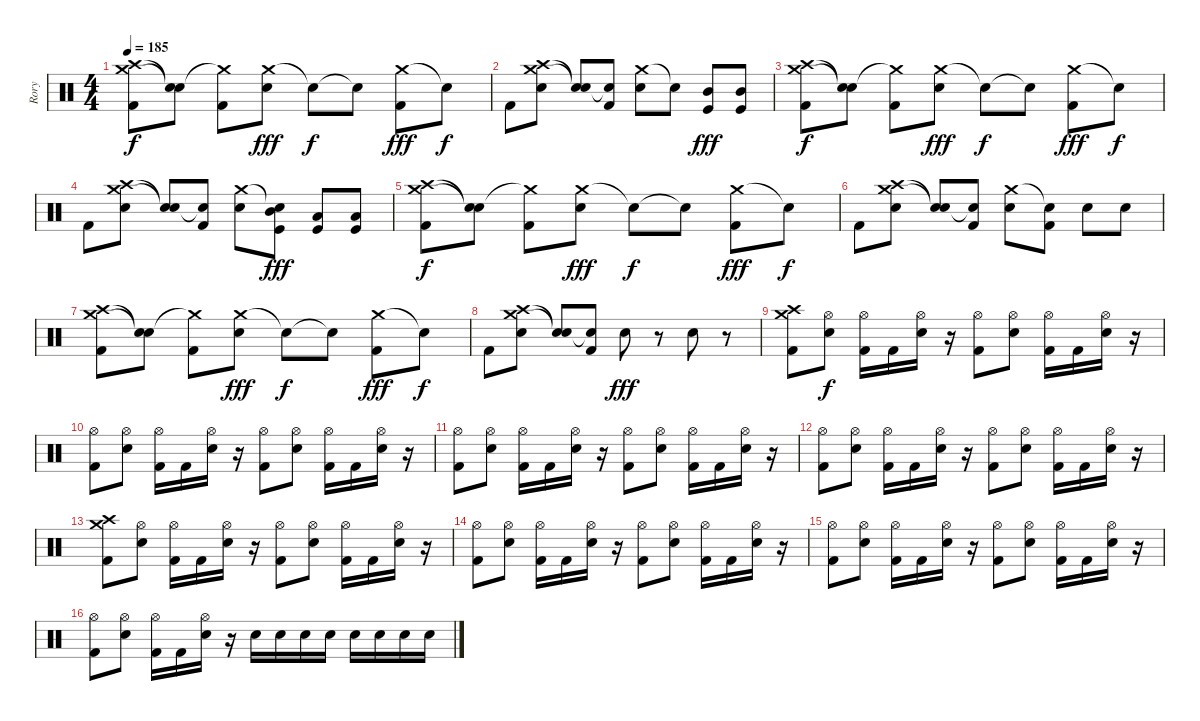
\track ("Rory" "Rory") {instrument percussion}
\staff {score}
\articulation defaults
\ts (4 4)
\tempo 185
\clef neutral
\ks c
("Crash medium (hit)" "Crash high (hit)" "Kick (hit) 2").8{dy f} ("Snare (hit)"{t} "Snare (hit)"{t}).8 ("Crash medium (hit)"{t} "Kick (hit) 2").8 ("Crash medium (hit)" "Electric Snare (hit)").8{dy fff} "Snare (hit)"{t}.8{dy f} "Snare (hit)"{t}.8 ("Crash medium (hit)" "Kick (hit) 2").8{dy fff} "Snare (hit)"{t}.8{dy f} |
"Kick (hit) 2".8 ("Crash medium (hit)" "Crash high (hit)" "Electric Snare (hit)").8 ("Snare (hit)"{t} "Snare (hit)"{t}).8 ("Snare (hit)"{t} "Kick (hit) 2").8 ("Crash medium (hit)" "Electric Snare (hit)").8 "Snare (hit)"{t}.8 ("Mid Tom (hit)" "Kick (hit)").8{dy fff} ("Mid Tom (hit)" "Kick (hit)").8 |
("Crash medium (hit)" "Crash high (hit)" "Kick (hit) 2").8{dy f} ("Snare (hit)"{t} "Snare (hit)"{t}).8 ("Crash medium (hit)"{t} "Kick (hit) 2").8 ("Crash medium (hit)" "Electric Snare (hit)").8{dy fff} "Snare (hit)"{t}.8{dy f} "Snare (hit)"{t}.8 ("Crash medium (hit)" "Kick (hit) 2").8{dy fff} "Snare (hit)"{t}.8{dy f} |
"Kick (hit) 2".8 ("Crash medium (hit)" "Crash high (hit)" "Electric Snare (hit)").8 ("Snare (hit)"{t} "Snare (hit)"{t}).8 ("Snare (hit)"{t} "Kick (hit) 2").8 ("Crash medium (hit)" "Electric Snare (hit)").8 ("Snare (hit)"{t} "Mid Tom (hit)" "Kick (hit)").8{dy fff} ("Low Tom (hit)" "Kick (hit)").8 ("Low Tom (hit)" "Kick (hit)").8 |
("Crash medium (hit)" "Crash high (hit)" "Kick (hit) 2").8{dy f} ("Snare (hit)"{t} "Snare (hit)"{t}).8 ("Crash medium (hit)"{t} "Kick (hit) 2").8 ("Crash medium (hit)" "Electric Snare (hit)").8{dy fff} "Snare (hit)"{t}.8{dy f} "Snare (hit)"{t}.8 ("Crash medium (hit)" "Kick (hit) 2").8{dy fff} "Snare (hit)"{t}.8{dy f} |
"Kick (hit) 2".8 ("Crash medium (hit)" "Crash high (hit)" "Electric Snare (hit)").8 ("Snare (hit)"{t} "Snare (hit)"{t}).8 ("Snare (hit)"{t} "Kick (hit) 2").8 ("Crash medium (hit)" "Electric Snare (hit)").8 ("Snare (hit)"{t} "Kick (hit) 2").8 "Electric Snare (hit)".8 "Electric Snare (hit)".8 |
("Crash medium (hit)" "Crash high (hit)" "Kick (hit) 2").8 ("Snare (hit)"{t} "Snare (hit)"{t}).8 ("Crash medium (hit)"{t} "Kick (hit) 2").8 ("Crash medium (hit)" "Electric Snare (hit)").8{dy fff} "Snare (hit)"{t}.8{dy f} "Snare (hit)"{t}.8 ("Crash medium (hit)" "Kick (hit) 2").8{dy fff} "Snare (hit)"{t}.8{dy f} |
"Kick (hit) 2".8 ("Crash medium (hit)" "Crash high (hit)" "Electric Snare (hit)").8 ("Snare (hit)"{t} "Snare (hit)"{t}).8 ("Snare (hit)"{t} "Kick (hit) 2").8 "Electric Snare (hit)".8{dy fff} r.8 "Electric Snare (hit)".8 r.8 |
("Crash medium (hit)" "Crash high (hit)" "Kick (hit) 2").8 ("Hi-Hat (open)" "Electric Snare (hit)").8{dy f} ("Hi-Hat (open)" "Kick (hit) 2").16 "Kick (hit) 2".16 ("Hi-Hat (open)" "Electric Snare (hit)").16 r.16 ("Hi-Hat (open)" "Kick (hit) 2").8 ("Hi-Hat (open)" "Electric Snare (hit)").8 ("Hi-Hat (open)" "Kick (hit) 2").16 "Kick (hit) 2".16 ("Hi-Hat (open)" "Electric Snare (hit)").16 r.16 |
("Hi-Hat (open)" "Kick (hit) 2").8 ("Hi-Hat (open)" "Electric Snare (hit)").8 ("Hi-Hat (open)" "Kick (hit) 2").16 "Kick (hit) 2".16 ("Hi-Hat (open)" "Electric Snare (hit)").16 r.16 ("Hi-Hat (open)" "Kick (hit) 2").8 ("Hi-Hat (open)" "Electric Snare (hit)").8 ("Hi-Hat (open)" "Kick (hit) 2").16 "Kick (hit) 2".16 ("Hi-Hat (open)" "Electric Snare (hit)").16 r.16 |
("Hi-Hat (open)" "Kick (hit) 2").8 ("Hi-Hat (open)" "Electric Snare (hit)").8 ("Hi-Hat (open)" "Kick (hit) 2").16 "Kick (hit) 2".16 ("Hi-Hat (open)" "Electric Snare (hit)").16 r.16 ("Hi-Hat (open)" "Kick (hit) 2").8 ("Hi-Hat (open)" "Electric Snare (hit)").8 ("Hi-Hat (open)" "Kick (hit) 2").16 "Kick (hit) 2".16 ("Hi-Hat (open)" "Electric Snare (hit)").16 r.16 |
("Hi-Hat (open)" "Kick (hit) 2").8 ("Hi-Hat (open)" "Electric Snare (hit)").8 ("Hi-Hat (open)" "Kick (hit) 2").16 "Kick (hit) 2".16 ("Hi-Hat (open)" "Electric Snare (hit)").16 r.16 ("Hi-Hat (open)" "Kick (hit) 2").8 ("Hi-Hat (open)" "Electric Snare (hit)").8 ("Hi-Hat (open)" "Kick (hit) 2").16 "Kick (hit) 2".16 ("Hi-Hat (open)" "Electric Snare (hit)").16 r.16 |
("Crash medium (hit)" "Crash high (hit)" "Kick (hit) 2").8 ("Hi-Hat (open)" "Electric Snare (hit)").8 ("Hi-Hat (open)" "Kick (hit) 2").16 "Kick (hit) 2".16 ("Hi-Hat (open)" "Electric Snare (hit)").16 r.16 ("Hi-Hat (open)" "Kick (hit) 2").8 ("Hi-Hat (open)" "Electric Snare (hit)").8 ("Hi-Hat (open)" "Kick (hit) 2").16 "Kick (hit) 2".16 ("Hi-Hat (open)" "Electric Snare (hit)").16 r.16 |
("Hi-Hat (open)" "Kick (hit) 2").8 ("Hi-Hat (open)" "Electric Snare (hit)").8 ("Hi-Hat (open)" "Kick (hit) 2").16 "Kick (hit) 2".16 ("Hi-Hat (open)" "Electric Snare (hit)").16 r.16 ("Hi-Hat (open)" "Kick (hit) 2").8 ("Hi-Hat (open)" "Electric Snare (hit)").8 ("Hi-Hat (open)" "Kick (hit) 2").16 "Kick (hit) 2".16 ("Hi-Hat (open)" "Electric Snare (hit)").16 r.16 |
("Hi-Hat (open)" "Kick (hit) 2").8 ("Hi-Hat (open)" "Electric Snare (hit)").8 ("Hi-Hat (open)" "Kick (hit) 2").16 "Kick (hit) 2".16 ("Hi-Hat (open)" "Electric Snare (hit)").16 r.16 ("Hi-Hat (open)" "Kick (hit) 2").8 ("Hi-Hat (open)" "Electric Snare (hit)").8 ("Hi-Hat (open)" "Kick (hit) 2").16 "Kick (hit) 2".16 ("Hi-Hat (open)" "Electric Snare (hit)").16 r.16 |
("Hi-Hat (open)" "Kick (hit) 2").8 ("Hi-Hat (open)" "Electric Snare (hit)").8 ("Hi-Hat (open)" "Kick (hit) 2").16 "Kick (hit) 2".16 ("Hi-Hat (open)" "Electric Snare (hit)").16 r.16 "Electric Snare (hit)".16 "Electric Snare (hit)".16 "Electric Snare (hit)".16 "Electric Snare (hit)".16 "Electric Snare (hit)".16 "Electric Snare (hit)".16 "Electric Snare (hit)".16 "Electric Snare (hit)".16
